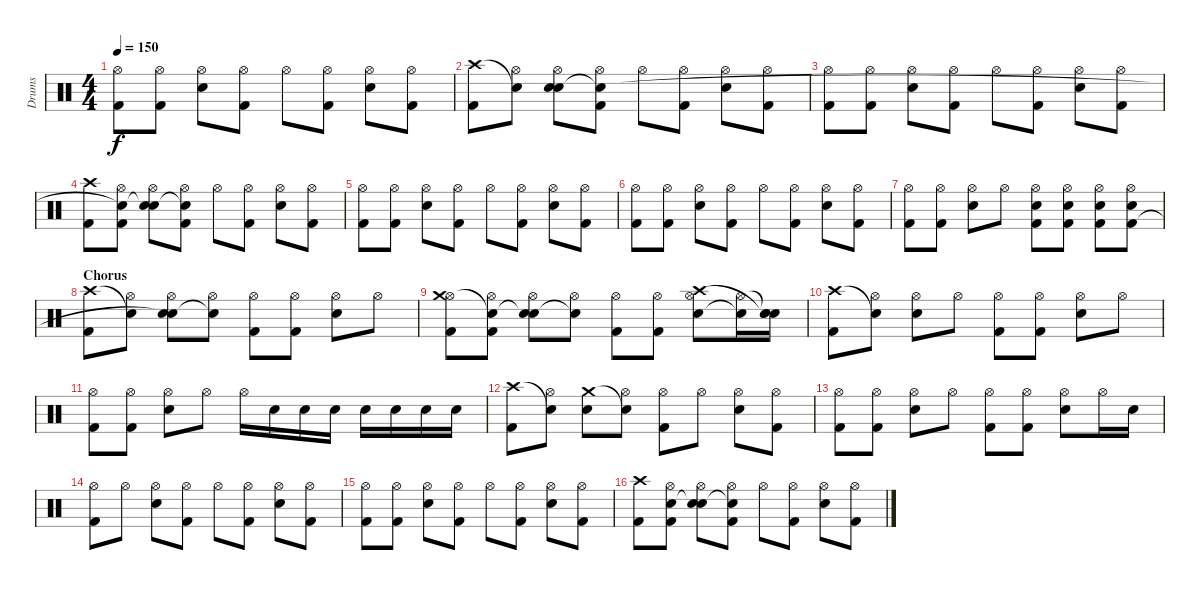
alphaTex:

\track ("Drums" "Drums") {instrument percussion}
\staff {score}
\articulation defaults
\ts (4 4)
\tempo 150
\clef neutral
\ks c
("Hi-Hat (open)" "Kick (hit) 2").8{dy f} ("Hi-Hat (open)" "Kick (hit) 2").8 ("Hi-Hat (open)" "Electric Snare (hit)").8 ("Hi-Hat (open)" "Kick (hit) 2").8 "Hi-Hat (open)".8 ("Hi-Hat (open)" "Kick (hit) 2").8 ("Hi-Hat (open)" "Electric Snare (hit)").8 ("Hi-Hat (open)" "Kick (hit) 2").8 |
("Kick (hit) 2" "Crash high (hit)").8 ("Hi-Hat (open)" "Snare (hit)"{t}).8 ("Hi-Hat (open)" "Electric Snare (hit)" "Snare (hit)"{t}).8 ("Hi-Hat (open)" "Kick (hit) 2" "Snare (hit)"{t}).8 "Hi-Hat (open)".8 ("Hi-Hat (open)" "Kick (hit) 2").8 ("Hi-Hat (open)" "Electric Snare (hit)").8 ("Hi-Hat (open)" "Kick (hit) 2").8 |
("Hi-Hat (open)" "Kick (hit) 2").8 ("Hi-Hat (open)" "Kick (hit) 2").8 ("Hi-Hat (open)" "Electric Snare (hit)").8 ("Hi-Hat (open)" "Kick (hit) 2").8 "Hi-Hat (open)".8 ("Hi-Hat (open)" "Kick (hit) 2").8 ("Hi-Hat (open)" "Electric Snare (hit)").8 ("Hi-Hat (open)" "Kick (hit) 2").8 |
("Kick (hit) 2" "Crash high (hit)").8 ("Hi-Hat (open)" "Kick (hit) 2" "Snare (hit)"{t}).8 ("Hi-Hat (open)" "Electric Snare (hit)" "Snare (hit)"{t}).8 ("Hi-Hat (open)" "Kick (hit) 2" "Snare (hit)"{t}).8 "Hi-Hat (open)".8 ("Hi-Hat (open)" "Kick (hit) 2").8 ("Hi-Hat (open)" "Electric Snare (hit)").8 ("Hi-Hat (open)" "Kick (hit) 2").8 |
("Hi-Hat (open)" "Kick (hit) 2").8 ("Hi-Hat (open)" "Kick (hit) 2").8 ("Hi-Hat (open)" "Electric Snare (hit)").8 ("Hi-Hat (open)" "Kick (hit) 2").8 "Hi-Hat (open)".8 ("Hi-Hat (open)" "Kick (hit) 2").8 ("Hi-Hat (open)" "Electric Snare (hit)").8 ("Hi-Hat (open)" "Kick (hit) 2").8 |
("Hi-Hat (open)" "Kick (hit) 2").8 ("Hi-Hat (open)" "Kick (hit) 2").8 ("Hi-Hat (open)" "Electric Snare (hit)").8 ("Hi-Hat (open)" "Kick (hit) 2").8 "Hi-Hat (open)".8 ("Hi-Hat (open)" "Kick (hit) 2").8 ("Hi-Hat (open)" "Electric Snare (hit)").8 ("Hi-Hat (open)" "Kick (hit) 2").8 |
("Hi-Hat (open)" "Kick (hit) 2").8 ("Hi-Hat (open)" "Kick (hit) 2").8 ("Hi-Hat (open)" "Electric Snare (hit)").8 "Hi-Hat (open)".8 ("Hi-Hat (open)" "Electric Snare (hit)" "Kick (hit) 2").8 ("Hi-Hat (open)" "Electric Snare (hit)" "Kick (hit) 2").8 ("Hi-Hat (open)" "Electric Snare (hit)" "Kick (hit) 2").8 ("Hi-Hat (open)" "Electric Snare (hit)" "Kick (hit) 2").8 |
\section ("" "Chorus")
("Kick (hit) 2" "Crash high (hit)").8 ("Hi-Hat (open)" "Snare (hit)"{t}).8 ("Hi-Hat (open)" "Electric Snare (hit)" "Snare (hit)"{t}).8 ("Hi-Hat (open)" "Snare (hit)"{t}).8 ("Hi-Hat (open)" "Kick (hit) 2").8 ("Hi-Hat (open)" "Kick (hit) 2").8 ("Hi-Hat (open)" "Electric Snare (hit)").8 "Hi-Hat (open)".8 |
("Hi-Hat (open)" "Kick (hit) 2" "Crash medium (hit)").8 ("Hi-Hat (open)" "Kick (hit) 2" "Snare (hit)"{t}).8 ("Hi-Hat (open)" "Electric Snare (hit)" "Snare (hit)"{t}).8 ("Hi-Hat (open)" "Snare (hit)"{t}).8 ("Hi-Hat (open)" "Kick (hit) 2").8 ("Hi-Hat (open)" "Kick (hit) 2").8 ("Hi-Hat (open)" "Electric Snare (hit)" "Crash high (hit)").8 ("Hi-Hat (open)" "Snare (hit)"{t}).16 ("Snare (hit)"{t} "Electric Snare (hit)" "Snare (hit)"{t}).16 |
("Kick (hit) 2" "Crash high (hit)").8 ("Hi-Hat (open)" "Snare (hit)"{t}).8 ("Hi-Hat (open)" "Electric Snare (hit)").8 "Hi-Hat (open)".8 ("Hi-Hat (open)" "Kick (hit) 2").8 ("Hi-Hat (open)" "Kick (hit) 2").8 ("Hi-Hat (open)" "Electric Snare (hit)").8 "Hi-Hat (open)".8 |
("Hi-Hat (open)" "Kick (hit) 2").8 ("Hi-Hat (open)" "Kick (hit) 2").8 ("Hi-Hat (open)" "Electric Snare (hit)").8 "Hi-Hat (open)".8 "Hi-Hat (open)".16 "Electric Snare (hit)".16 "Electric Snare (hit)".16 "Electric Snare (hit)".16 "Electric Snare (hit)".16 "Electric Snare (hit)".16 "Electric Snare (hit)".16 "Electric Snare (hit)".16 |
("Kick (hit) 2" "Crash high (hit)").8 ("Hi-Hat (open)" "Snare (hit)"{t}).8 ("Electric Snare (hit)" "Crash medium (hit)").8 ("Hi-Hat (open)" "Snare (hit)"{t}).8 ("Hi-Hat (open)" "Kick (hit) 2").8 "Hi-Hat (open)".8 ("Hi-Hat (open)" "Electric Snare (hit)").8 ("Hi-Hat (open)" "Kick (hit) 2").8 |
("Hi-Hat (open)" "Kick (hit) 2").8 ("Hi-Hat (open)" "Kick (hit) 2").8 ("Hi-Hat (open)" "Electric Snare (hit)").8 "Hi-Hat (open)".8 ("Hi-Hat (open)" "Kick (hit) 2").8 ("Hi-Hat (open)" "Kick (hit) 2").8 ("Hi-Hat (open)" "Electric Snare (hit)").8 "Hi-Hat (open)".16 "Electric Snare (hit)".16 |
("Hi-Hat (open)" "Kick (hit) 2").8 "Hi-Hat (open)".8 ("Hi-Hat (open)" "Electric Snare (hit)").8 ("Hi-Hat (open)" "Kick (hit) 2").8 "Hi-Hat (open)".8 ("Hi-Hat (open)" "Kick (hit) 2").8 ("Hi-Hat (open)" "Electric Snare (hit)").8 ("Hi-Hat (open)" "Kick (hit) 2").8 |
("Hi-Hat (open)" "Kick (hit) 2").8 ("Hi-Hat (open)" "Kick (hit) 2").8 ("Hi-Hat (open)" "Electric Snare (hit)").8 ("Hi-Hat (open)" "Kick (hit) 2").8 "Hi-Hat (open)".8 ("Hi-Hat (open)" "Kick (hit) 2").8 ("Hi-Hat (open)" "Electric Snare (hit)").8 ("Hi-Hat (open)" "Kick (hit) 2").8 |
("Kick (hit) 2" "Crash high (hit)").8 ("Hi-Hat (open)" "Kick (hit) 2" "Snare (hit)").8 ("Hi-Hat (open)" "Electric Snare (hit)" "Snare (hit)"{t}).8 ("Hi-Hat (open)" "Kick (hit) 2" "Snare (hit)"{t}).8 "Hi-Hat (open)".8 ("Hi-Hat (open)" "Kick (hit) 2").8 ("Hi-Hat (open)" "Electric Snare (hit)").8 ("Hi-Hat (open)" "Kick (hit) 2").8
